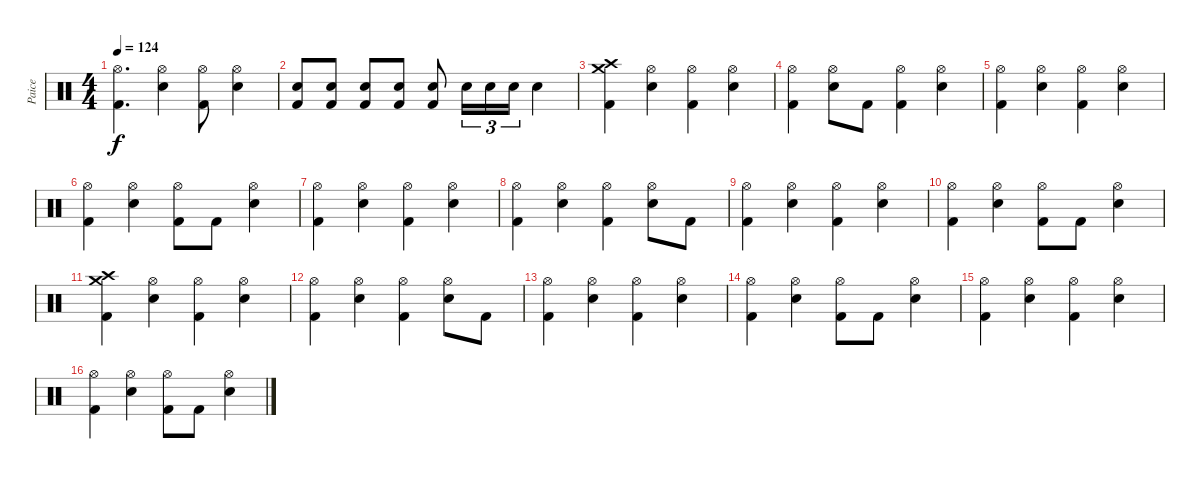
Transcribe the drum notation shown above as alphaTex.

\track ("Paice" "Paice") {instrument percussion}
\staff {score}
\articulation defaults
\ts (4 4)
\tempo 124
\clef neutral
\ks c
("Hi-Hat (open)" "Kick (hit) 2").4{d dy f} ("Hi-Hat (open)" "Electric Snare (hit)").4 ("Hi-Hat (open)" "Kick (hit) 2").8 ("Hi-Hat (open)" "Electric Snare (hit)").4 |
("Electric Snare (hit)" "Kick (hit) 2").8 ("Electric Snare (hit)" "Kick (hit) 2").8 ("Electric Snare (hit)" "Kick (hit) 2").8 ("Electric Snare (hit)" "Kick (hit) 2").8 ("Electric Snare (hit)" "Kick (hit) 2").8 "Electric Snare (hit)".16{tu (3 2)} "Electric Snare (hit)".16{tu (3 2)} "Electric Snare (hit)".16{tu (3 2)} "Electric Snare (hit)".4 |
("Crash high (hit)" "Crash medium (hit)" "Kick (hit) 2").4 ("Hi-Hat (open)" "Electric Snare (hit)").4 ("Hi-Hat (open)" "Kick (hit) 2").4 ("Hi-Hat (open)" "Electric Snare (hit)").4 |
("Hi-Hat (open)" "Kick (hit) 2").4 ("Hi-Hat (open)" "Electric Snare (hit)").8 "Kick (hit) 2".8 ("Hi-Hat (open)" "Kick (hit) 2").4 ("Hi-Hat (open)" "Electric Snare (hit)").4 |
("Hi-Hat (open)" "Kick (hit) 2").4 ("Hi-Hat (open)" "Electric Snare (hit)").4 ("Hi-Hat (open)" "Kick (hit) 2").4 ("Hi-Hat (open)" "Electric Snare (hit)").4 |
("Hi-Hat (open)" "Kick (hit) 2").4 ("Hi-Hat (open)" "Electric Snare (hit)").4 ("Hi-Hat (open)" "Kick (hit) 2").8 "Kick (hit) 2".8 ("Hi-Hat (open)" "Electric Snare (hit)").4 |
("Hi-Hat (open)" "Kick (hit) 2").4 ("Hi-Hat (open)" "Electric Snare (hit)").4 ("Hi-Hat (open)" "Kick (hit) 2").4 ("Hi-Hat (open)" "Electric Snare (hit)").4 |
("Hi-Hat (open)" "Kick (hit) 2").4 ("Hi-Hat (open)" "Electric Snare (hit)").4 ("Hi-Hat (open)" "Kick (hit) 2").4 ("Hi-Hat (open)" "Electric Snare (hit)").8 "Kick (hit) 2".8 |
("Hi-Hat (open)" "Kick (hit) 2").4 ("Hi-Hat (open)" "Electric Snare (hit)").4 ("Hi-Hat (open)" "Kick (hit) 2").4 ("Hi-Hat (open)" "Electric Snare (hit)").4 |
("Hi-Hat (open)" "Kick (hit) 2").4 ("Hi-Hat (open)" "Electric Snare (hit)").4 ("Hi-Hat (open)" "Kick (hit) 2").8 "Kick (hit) 2".8 ("Hi-Hat (open)" "Electric Snare (hit)").4 |
("Crash high (hit)" "Crash medium (hit)" "Kick (hit) 2").4 ("Hi-Hat (open)" "Electric Snare (hit)").4 ("Hi-Hat (open)" "Kick (hit) 2").4 ("Hi-Hat (open)" "Electric Snare (hit)").4 |
("Hi-Hat (open)" "Kick (hit) 2").4 ("Hi-Hat (open)" "Electric Snare (hit)").4 ("Hi-Hat (open)" "Kick (hit) 2").4 ("Hi-Hat (open)" "Electric Snare (hit)").8 "Kick (hit) 2".8 |
("Hi-Hat (open)" "Kick (hit) 2").4 ("Hi-Hat (open)" "Electric Snare (hit)").4 ("Hi-Hat (open)" "Kick (hit) 2").4 ("Hi-Hat (open)" "Electric Snare (hit)").4 |
("Hi-Hat (open)" "Kick (hit) 2").4 ("Hi-Hat (open)" "Electric Snare (hit)").4 ("Hi-Hat (open)" "Kick (hit) 2").8 "Kick (hit) 2".8 ("Hi-Hat (open)" "Electric Snare (hit)").4 |
("Hi-Hat (open)" "Kick (hit) 2").4 ("Hi-Hat (open)" "Electric Snare (hit)").4 ("Hi-Hat (open)" "Kick (hit) 2").4 ("Hi-Hat (open)" "Electric Snare (hit)").4 |
("Hi-Hat (open)" "Kick (hit) 2").4 ("Hi-Hat (open)" "Electric Snare (hit)").4 ("Hi-Hat (open)" "Kick (hit) 2").8 "Kick (hit) 2".8 ("Hi-Hat (open)" "Electric Snare (hit)").4
